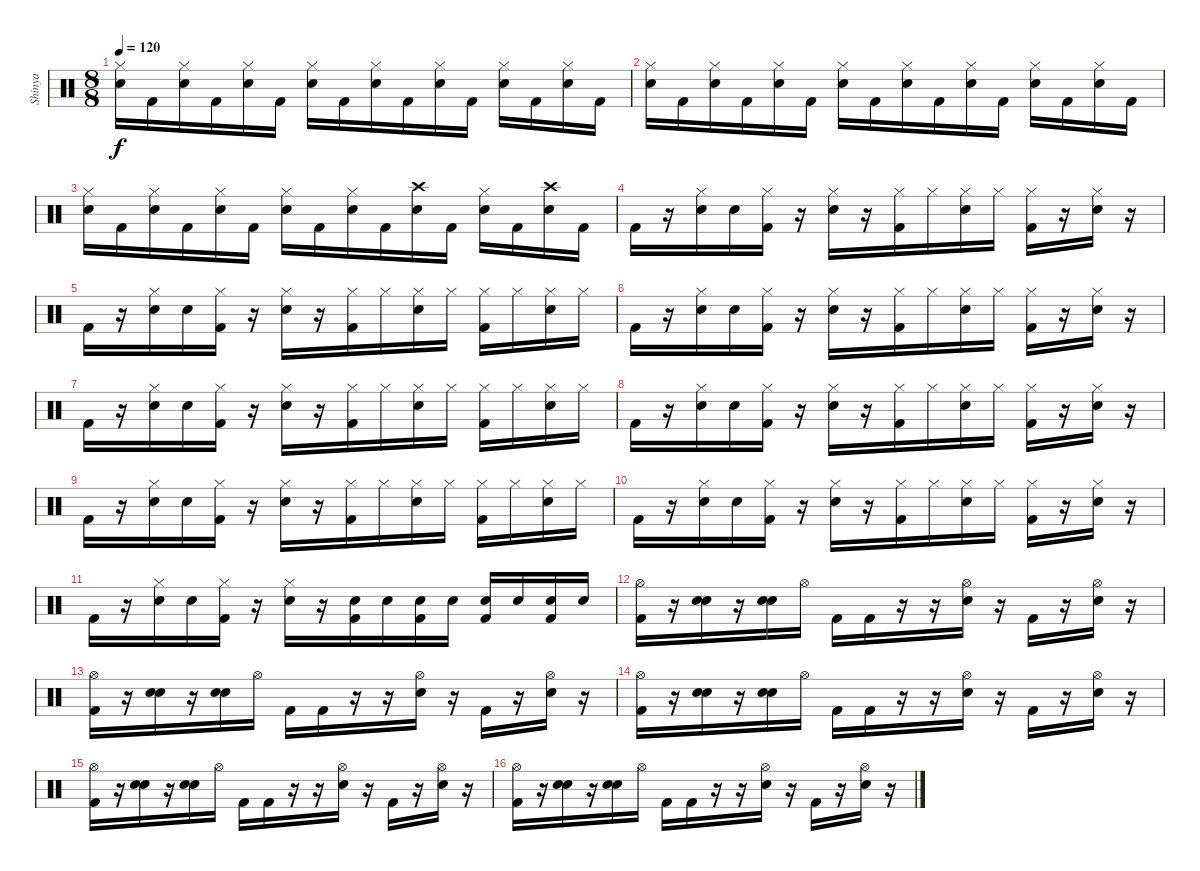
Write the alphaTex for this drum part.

\track ("Shinya" "Shinya") {instrument percussion}
\staff {score}
\articulation defaults
\ts (8 8)
\tempo 120
\clef neutral
\ks c
("Hi-Hat (closed)" "Snare (hit) 2").16{dy f} "Kick (hit) 2".16 ("Hi-Hat (closed)" "Snare (hit) 2").16 "Kick (hit) 2".16 ("Hi-Hat (closed)" "Snare (hit) 2").16 "Kick (hit) 2".16 ("Hi-Hat (closed)" "Snare (hit) 2").16 "Kick (hit) 2".16 ("Hi-Hat (closed)" "Snare (hit) 2").16 "Kick (hit) 2".16 ("Hi-Hat (closed)" "Snare (hit) 2").16 "Kick (hit) 2".16 ("Hi-Hat (closed)" "Snare (hit) 2").16 "Kick (hit) 2".16 ("Hi-Hat (closed)" "Snare (hit) 2").16 "Kick (hit) 2".16 |
("Hi-Hat (closed)" "Snare (hit) 2").16 "Kick (hit) 2".16 ("Hi-Hat (closed)" "Snare (hit) 2").16 "Kick (hit) 2".16 ("Hi-Hat (closed)" "Snare (hit) 2").16 "Kick (hit) 2".16 ("Hi-Hat (closed)" "Snare (hit) 2").16 "Kick (hit) 2".16 ("Hi-Hat (closed)" "Snare (hit) 2").16 "Kick (hit) 2".16 ("Hi-Hat (closed)" "Snare (hit) 2").16 "Kick (hit) 2".16 ("Hi-Hat (closed)" "Snare (hit) 2").16 "Kick (hit) 2".16 ("Hi-Hat (closed)" "Snare (hit) 2").16 "Kick (hit) 2".16 |
("Hi-Hat (closed)" "Snare (hit) 2").16 "Kick (hit) 2".16 ("Hi-Hat (closed)" "Snare (hit) 2").16 "Kick (hit) 2".16 ("Hi-Hat (closed)" "Snare (hit) 2").16 "Kick (hit) 2".16 ("Hi-Hat (closed)" "Snare (hit) 2").16 "Kick (hit) 2".16 ("Hi-Hat (closed)" "Snare (hit) 2").16 "Kick (hit) 2".16 ("Crash high (hit)" "Snare (hit) 2").16 "Kick (hit) 2".16 ("Hi-Hat (closed)" "Snare (hit) 2").16 "Kick (hit) 2".16 ("Crash high (hit)" "Snare (hit) 2").16 "Kick (hit) 2".16 |
"Kick (hit) 2".16 r.16 ("Hi-Hat (closed)" "Snare (hit) 2").16 "Snare (hit) 2".16 ("Hi-Hat (closed)" "Kick (hit) 2").16 r.16 ("Hi-Hat (closed)" "Snare (hit) 2").16 r.16 ("Hi-Hat (closed)" "Kick (hit) 2").16 "Hi-Hat (closed)".16 ("Hi-Hat (closed)" "Snare (hit) 2").16 "Hi-Hat (closed)".16 ("Hi-Hat (closed)" "Kick (hit) 2").16 r.16 ("Hi-Hat (closed)" "Snare (hit) 2").16 r.16 |
"Kick (hit) 2".16 r.16 ("Hi-Hat (closed)" "Snare (hit) 2").16 "Snare (hit) 2".16 ("Hi-Hat (closed)" "Kick (hit) 2").16 r.16 ("Hi-Hat (closed)" "Snare (hit) 2").16 r.16 ("Hi-Hat (closed)" "Kick (hit) 2").16 "Hi-Hat (closed)".16 ("Hi-Hat (closed)" "Snare (hit) 2").16 "Hi-Hat (closed)".16 ("Hi-Hat (closed)" "Kick (hit) 2").16 "Hi-Hat (closed)".16 ("Hi-Hat (closed)" "Snare (hit) 2").16 "Hi-Hat (closed)".16 |
"Kick (hit) 2".16 r.16 ("Hi-Hat (closed)" "Snare (hit) 2").16 "Snare (hit) 2".16 ("Hi-Hat (closed)" "Kick (hit) 2").16 r.16 ("Hi-Hat (closed)" "Snare (hit) 2").16 r.16 ("Hi-Hat (closed)" "Kick (hit) 2").16 "Hi-Hat (closed)".16 ("Hi-Hat (closed)" "Snare (hit) 2").16 "Hi-Hat (closed)".16 ("Hi-Hat (closed)" "Kick (hit) 2").16 r.16 ("Hi-Hat (closed)" "Snare (hit) 2").16 r.16 |
"Kick (hit) 2".16 r.16 ("Hi-Hat (closed)" "Snare (hit) 2").16 "Snare (hit) 2".16 ("Hi-Hat (closed)" "Kick (hit) 2").16 r.16 ("Hi-Hat (closed)" "Snare (hit) 2").16 r.16 ("Hi-Hat (closed)" "Kick (hit) 2").16 "Hi-Hat (closed)".16 ("Hi-Hat (closed)" "Snare (hit) 2").16 "Hi-Hat (closed)".16 ("Hi-Hat (closed)" "Kick (hit) 2").16 "Hi-Hat (closed)".16 ("Hi-Hat (closed)" "Snare (hit) 2").16 "Hi-Hat (closed)".16 |
"Kick (hit) 2".16 r.16 ("Hi-Hat (closed)" "Snare (hit) 2").16 "Snare (hit) 2".16 ("Hi-Hat (closed)" "Kick (hit) 2").16 r.16 ("Hi-Hat (closed)" "Snare (hit) 2").16 r.16 ("Hi-Hat (closed)" "Kick (hit) 2").16 "Hi-Hat (closed)".16 ("Hi-Hat (closed)" "Snare (hit) 2").16 "Hi-Hat (closed)".16 ("Hi-Hat (closed)" "Kick (hit) 2").16 r.16 ("Hi-Hat (closed)" "Snare (hit) 2").16 r.16 |
"Kick (hit) 2".16 r.16 ("Hi-Hat (closed)" "Snare (hit) 2").16 "Snare (hit) 2".16 ("Hi-Hat (closed)" "Kick (hit) 2").16 r.16 ("Hi-Hat (closed)" "Snare (hit) 2").16 r.16 ("Hi-Hat (closed)" "Kick (hit) 2").16 "Hi-Hat (closed)".16 ("Hi-Hat (closed)" "Snare (hit) 2").16 "Hi-Hat (closed)".16 ("Hi-Hat (closed)" "Kick (hit) 2").16 "Hi-Hat (closed)".16 ("Hi-Hat (closed)" "Snare (hit) 2").16 "Hi-Hat (closed)".16 |
"Kick (hit) 2".16 r.16 ("Hi-Hat (closed)" "Snare (hit) 2").16 "Snare (hit) 2".16 ("Hi-Hat (closed)" "Kick (hit) 2").16 r.16 ("Hi-Hat (closed)" "Snare (hit) 2").16 r.16 ("Hi-Hat (closed)" "Kick (hit) 2").16 "Hi-Hat (closed)".16 ("Hi-Hat (closed)" "Snare (hit) 2").16 "Hi-Hat (closed)".16 ("Hi-Hat (closed)" "Kick (hit) 2").16 r.16 ("Hi-Hat (closed)" "Snare (hit) 2").16 r.16 |
"Kick (hit) 2".16 r.16 ("Hi-Hat (closed)" "Snare (hit) 2").16 "Snare (hit) 2".16 ("Hi-Hat (closed)" "Kick (hit) 2").16 r.16 ("Hi-Hat (closed)" "Snare (hit) 2").16 r.16 ("Snare (hit) 2" "Kick (hit) 2").16 "Snare (hit) 2".16 ("Snare (hit) 2" "Kick (hit) 2").16 "Snare (hit) 2".16 ("Snare (hit) 2" "Kick (hit) 2").16 "Snare (hit) 2".16 ("Snare (hit) 2" "Kick (hit) 2").16 "Snare (hit) 2".16 |
("Hi-Hat (open)" "Kick (hit) 2").16 r.16 ("Snare (hit) 2" "Snare (hit) 2").16 r.16 ("Snare (hit) 2" "Snare (hit) 2").16 "Hi-Hat (open)".16 "Kick (hit) 2".16 "Kick (hit) 2".16 r.16 r.16 ("Hi-Hat (open)" "Snare (hit) 2").16 r.16 "Kick (hit) 2".16 r.16 ("Hi-Hat (open)" "Snare (hit) 2").16 r.16 |
("Hi-Hat (open)" "Kick (hit) 2").16 r.16 ("Snare (hit) 2" "Snare (hit) 2").16 r.16 ("Snare (hit) 2" "Snare (hit) 2").16 "Hi-Hat (open)".16 "Kick (hit) 2".16 "Kick (hit) 2".16 r.16 r.16 ("Hi-Hat (open)" "Snare (hit) 2").16 r.16 "Kick (hit) 2".16 r.16 ("Hi-Hat (open)" "Snare (hit) 2").16 r.16 |
("Hi-Hat (open)" "Kick (hit) 2").16 r.16 ("Snare (hit) 2" "Snare (hit) 2").16 r.16 ("Snare (hit) 2" "Snare (hit) 2").16 "Hi-Hat (open)".16 "Kick (hit) 2".16 "Kick (hit) 2".16 r.16 r.16 ("Hi-Hat (open)" "Snare (hit) 2").16 r.16 "Kick (hit) 2".16 r.16 ("Hi-Hat (open)" "Snare (hit) 2").16 r.16 |
("Hi-Hat (open)" "Kick (hit) 2").16 r.16 ("Snare (hit) 2" "Snare (hit) 2").16 r.16 ("Snare (hit) 2" "Snare (hit) 2").16 "Hi-Hat (open)".16 "Kick (hit) 2".16 "Kick (hit) 2".16 r.16 r.16 ("Hi-Hat (open)" "Snare (hit) 2").16 r.16 "Kick (hit) 2".16 r.16 ("Hi-Hat (open)" "Snare (hit) 2").16 r.16 |
("Hi-Hat (open)" "Kick (hit) 2").16 r.16 ("Snare (hit) 2" "Snare (hit) 2").16 r.16 ("Snare (hit) 2" "Snare (hit) 2").16 "Hi-Hat (open)".16 "Kick (hit) 2".16 "Kick (hit) 2".16 r.16 r.16 ("Hi-Hat (open)" "Snare (hit) 2").16 r.16 "Kick (hit) 2".16 r.16 ("Hi-Hat (open)" "Snare (hit) 2").16 r.16
